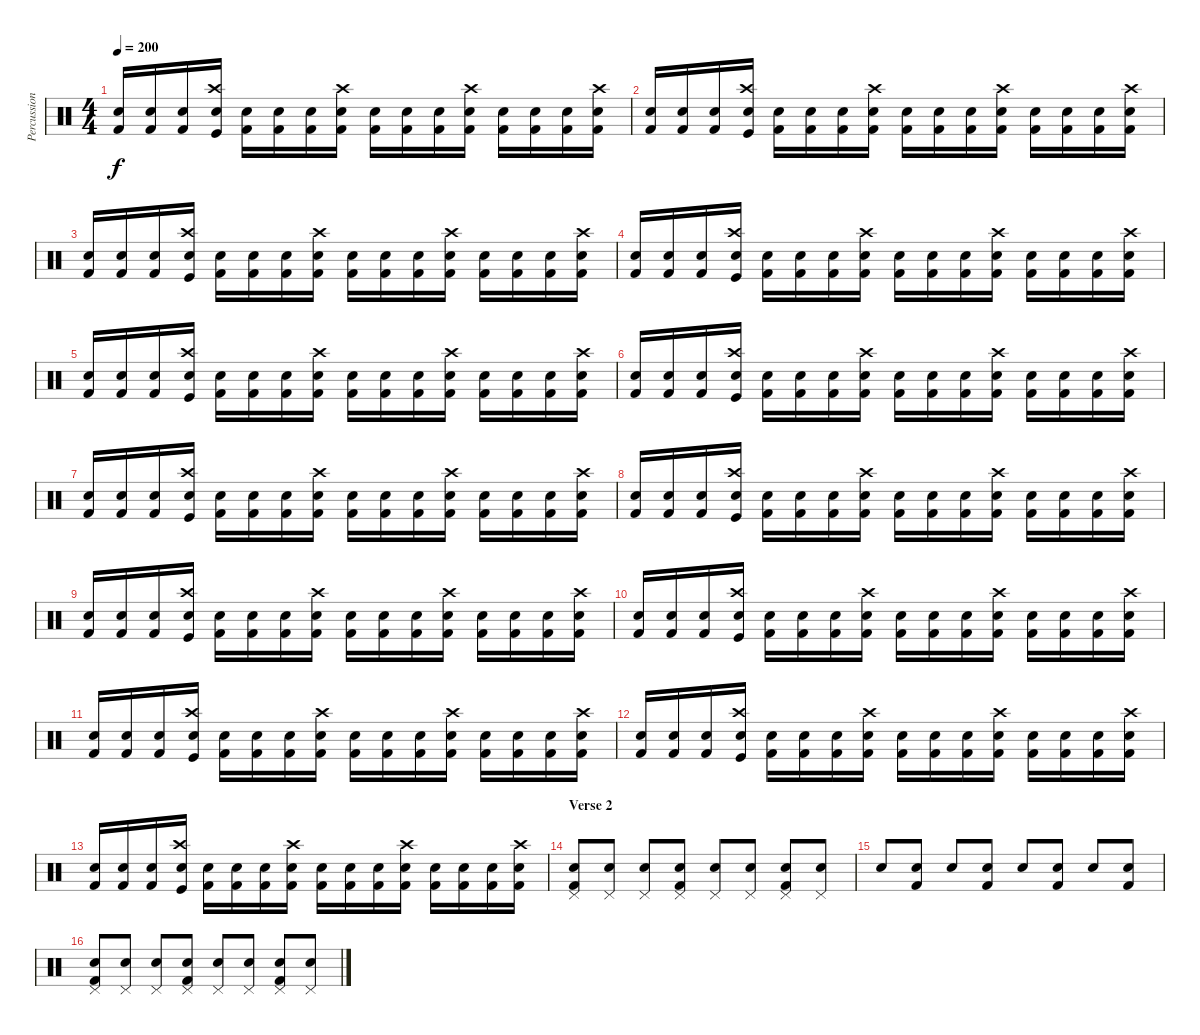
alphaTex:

\track ("Percussion" "Percussion") {instrument percussion}
\staff {score}
\articulation defaults
\ts (4 4)
\tempo 200
\clef neutral
\ks c
("Kick (hit) 2" "Snare (hit) 2").16{dy f} ("Snare (hit) 2" "Kick (hit) 2").16 ("Kick (hit) 2" "Snare (hit) 2").16 ("Crash high (hit)" "Kick (hit)" "Snare (hit) 2").16 ("Snare (hit) 2" "Kick (hit) 2").16 ("Kick (hit) 2" "Snare (hit) 2").16 ("Kick (hit) 2" "Snare (hit) 2").16 ("Kick (hit) 2" "Snare (hit) 2" "Crash high (hit)").16 ("Kick (hit) 2" "Snare (hit) 2").16 ("Snare (hit) 2" "Kick (hit) 2").16 ("Kick (hit) 2" "Snare (hit) 2").16 ("Kick (hit) 2" "Snare (hit) 2" "Crash high (hit)").16 ("Kick (hit) 2" "Snare (hit) 2").16 ("Snare (hit) 2" "Kick (hit) 2").16 ("Kick (hit) 2" "Snare (hit) 2").16 ("Kick (hit) 2" "Crash high (hit)" "Snare (hit) 2").16 |
("Kick (hit) 2" "Snare (hit) 2").16 ("Snare (hit) 2" "Kick (hit) 2").16 ("Kick (hit) 2" "Snare (hit) 2").16 ("Crash high (hit)" "Kick (hit)" "Snare (hit) 2").16 ("Snare (hit) 2" "Kick (hit) 2").16 ("Kick (hit) 2" "Snare (hit) 2").16 ("Kick (hit) 2" "Snare (hit) 2").16 ("Kick (hit) 2" "Snare (hit) 2" "Crash high (hit)").16 ("Kick (hit) 2" "Snare (hit) 2").16 ("Snare (hit) 2" "Kick (hit) 2").16 ("Kick (hit) 2" "Snare (hit) 2").16 ("Kick (hit) 2" "Snare (hit) 2" "Crash high (hit)").16 ("Kick (hit) 2" "Snare (hit) 2").16 ("Snare (hit) 2" "Kick (hit) 2").16 ("Kick (hit) 2" "Snare (hit) 2").16 ("Kick (hit) 2" "Crash high (hit)" "Snare (hit) 2").16 |
("Kick (hit) 2" "Snare (hit) 2").16 ("Snare (hit) 2" "Kick (hit) 2").16 ("Kick (hit) 2" "Snare (hit) 2").16 ("Crash high (hit)" "Kick (hit)" "Snare (hit) 2").16 ("Snare (hit) 2" "Kick (hit) 2").16 ("Kick (hit) 2" "Snare (hit) 2").16 ("Kick (hit) 2" "Snare (hit) 2").16 ("Kick (hit) 2" "Snare (hit) 2" "Crash high (hit)").16 ("Kick (hit) 2" "Snare (hit) 2").16 ("Snare (hit) 2" "Kick (hit) 2").16 ("Kick (hit) 2" "Snare (hit) 2").16 ("Kick (hit) 2" "Snare (hit) 2" "Crash high (hit)").16 ("Kick (hit) 2" "Snare (hit) 2").16 ("Snare (hit) 2" "Kick (hit) 2").16 ("Kick (hit) 2" "Snare (hit) 2").16 ("Kick (hit) 2" "Crash high (hit)" "Snare (hit) 2").16 |
("Kick (hit) 2" "Snare (hit) 2").16 ("Snare (hit) 2" "Kick (hit) 2").16 ("Kick (hit) 2" "Snare (hit) 2").16 ("Crash high (hit)" "Kick (hit)" "Snare (hit) 2").16 ("Snare (hit) 2" "Kick (hit) 2").16 ("Kick (hit) 2" "Snare (hit) 2").16 ("Kick (hit) 2" "Snare (hit) 2").16 ("Kick (hit) 2" "Snare (hit) 2" "Crash high (hit)").16 ("Kick (hit) 2" "Snare (hit) 2").16 ("Snare (hit) 2" "Kick (hit) 2").16 ("Kick (hit) 2" "Snare (hit) 2").16 ("Kick (hit) 2" "Snare (hit) 2" "Crash high (hit)").16 ("Kick (hit) 2" "Snare (hit) 2").16 ("Snare (hit) 2" "Kick (hit) 2").16 ("Kick (hit) 2" "Snare (hit) 2").16 ("Kick (hit) 2" "Crash high (hit)" "Snare (hit) 2").16 |
("Kick (hit) 2" "Snare (hit) 2").16 ("Snare (hit) 2" "Kick (hit) 2").16 ("Kick (hit) 2" "Snare (hit) 2").16 ("Crash high (hit)" "Kick (hit)" "Snare (hit) 2").16 ("Snare (hit) 2" "Kick (hit) 2").16 ("Kick (hit) 2" "Snare (hit) 2").16 ("Kick (hit) 2" "Snare (hit) 2").16 ("Kick (hit) 2" "Snare (hit) 2" "Crash high (hit)").16 ("Kick (hit) 2" "Snare (hit) 2").16 ("Snare (hit) 2" "Kick (hit) 2").16 ("Kick (hit) 2" "Snare (hit) 2").16 ("Kick (hit) 2" "Snare (hit) 2" "Crash high (hit)").16 ("Kick (hit) 2" "Snare (hit) 2").16 ("Snare (hit) 2" "Kick (hit) 2").16 ("Kick (hit) 2" "Snare (hit) 2").16 ("Kick (hit) 2" "Crash high (hit)" "Snare (hit) 2").16 |
("Kick (hit) 2" "Snare (hit) 2").16 ("Snare (hit) 2" "Kick (hit) 2").16 ("Kick (hit) 2" "Snare (hit) 2").16 ("Crash high (hit)" "Kick (hit)" "Snare (hit) 2").16 ("Snare (hit) 2" "Kick (hit) 2").16 ("Kick (hit) 2" "Snare (hit) 2").16 ("Kick (hit) 2" "Snare (hit) 2").16 ("Kick (hit) 2" "Snare (hit) 2" "Crash high (hit)").16 ("Kick (hit) 2" "Snare (hit) 2").16 ("Snare (hit) 2" "Kick (hit) 2").16 ("Kick (hit) 2" "Snare (hit) 2").16 ("Kick (hit) 2" "Snare (hit) 2" "Crash high (hit)").16 ("Kick (hit) 2" "Snare (hit) 2").16 ("Snare (hit) 2" "Kick (hit) 2").16 ("Kick (hit) 2" "Snare (hit) 2").16 ("Kick (hit) 2" "Crash high (hit)" "Snare (hit) 2").16 |
("Kick (hit) 2" "Snare (hit) 2").16 ("Snare (hit) 2" "Kick (hit) 2").16 ("Kick (hit) 2" "Snare (hit) 2").16 ("Crash high (hit)" "Kick (hit)" "Snare (hit) 2").16 ("Snare (hit) 2" "Kick (hit) 2").16 ("Kick (hit) 2" "Snare (hit) 2").16 ("Kick (hit) 2" "Snare (hit) 2").16 ("Kick (hit) 2" "Snare (hit) 2" "Crash high (hit)").16 ("Kick (hit) 2" "Snare (hit) 2").16 ("Snare (hit) 2" "Kick (hit) 2").16 ("Kick (hit) 2" "Snare (hit) 2").16 ("Kick (hit) 2" "Snare (hit) 2" "Crash high (hit)").16 ("Kick (hit) 2" "Snare (hit) 2").16 ("Snare (hit) 2" "Kick (hit) 2").16 ("Kick (hit) 2" "Snare (hit) 2").16 ("Kick (hit) 2" "Crash high (hit)" "Snare (hit) 2").16 |
("Kick (hit) 2" "Snare (hit) 2").16 ("Snare (hit) 2" "Kick (hit) 2").16 ("Kick (hit) 2" "Snare (hit) 2").16 ("Crash high (hit)" "Kick (hit)" "Snare (hit) 2").16 ("Snare (hit) 2" "Kick (hit) 2").16 ("Kick (hit) 2" "Snare (hit) 2").16 ("Kick (hit) 2" "Snare (hit) 2").16 ("Kick (hit) 2" "Snare (hit) 2" "Crash high (hit)").16 ("Kick (hit) 2" "Snare (hit) 2").16 ("Snare (hit) 2" "Kick (hit) 2").16 ("Kick (hit) 2" "Snare (hit) 2").16 ("Kick (hit) 2" "Snare (hit) 2" "Crash high (hit)").16 ("Kick (hit) 2" "Snare (hit) 2").16 ("Snare (hit) 2" "Kick (hit) 2").16 ("Kick (hit) 2" "Snare (hit) 2").16 ("Kick (hit) 2" "Crash high (hit)" "Snare (hit) 2").16 |
("Kick (hit) 2" "Snare (hit) 2").16 ("Snare (hit) 2" "Kick (hit) 2").16 ("Kick (hit) 2" "Snare (hit) 2").16 ("Crash high (hit)" "Kick (hit)" "Snare (hit) 2").16 ("Snare (hit) 2" "Kick (hit) 2").16 ("Kick (hit) 2" "Snare (hit) 2").16 ("Kick (hit) 2" "Snare (hit) 2").16 ("Kick (hit) 2" "Snare (hit) 2" "Crash high (hit)").16 ("Kick (hit) 2" "Snare (hit) 2").16 ("Snare (hit) 2" "Kick (hit) 2").16 ("Kick (hit) 2" "Snare (hit) 2").16 ("Kick (hit) 2" "Snare (hit) 2" "Crash high (hit)").16 ("Kick (hit) 2" "Snare (hit) 2").16 ("Snare (hit) 2" "Kick (hit) 2").16 ("Kick (hit) 2" "Snare (hit) 2").16 ("Kick (hit) 2" "Crash high (hit)" "Snare (hit) 2").16 |
("Kick (hit) 2" "Snare (hit) 2").16 ("Snare (hit) 2" "Kick (hit) 2").16 ("Kick (hit) 2" "Snare (hit) 2").16 ("Crash high (hit)" "Kick (hit)" "Snare (hit) 2").16 ("Snare (hit) 2" "Kick (hit) 2").16 ("Kick (hit) 2" "Snare (hit) 2").16 ("Kick (hit) 2" "Snare (hit) 2").16 ("Kick (hit) 2" "Snare (hit) 2" "Crash high (hit)").16 ("Kick (hit) 2" "Snare (hit) 2").16 ("Snare (hit) 2" "Kick (hit) 2").16 ("Kick (hit) 2" "Snare (hit) 2").16 ("Kick (hit) 2" "Snare (hit) 2" "Crash high (hit)").16 ("Kick (hit) 2" "Snare (hit) 2").16 ("Snare (hit) 2" "Kick (hit) 2").16 ("Kick (hit) 2" "Snare (hit) 2").16 ("Kick (hit) 2" "Crash high (hit)" "Snare (hit) 2").16 |
("Kick (hit) 2" "Snare (hit) 2").16 ("Snare (hit) 2" "Kick (hit) 2").16 ("Kick (hit) 2" "Snare (hit) 2").16 ("Crash high (hit)" "Kick (hit)" "Snare (hit) 2").16 ("Snare (hit) 2" "Kick (hit) 2").16 ("Kick (hit) 2" "Snare (hit) 2").16 ("Kick (hit) 2" "Snare (hit) 2").16 ("Kick (hit) 2" "Snare (hit) 2" "Crash high (hit)").16 ("Kick (hit) 2" "Snare (hit) 2").16 ("Snare (hit) 2" "Kick (hit) 2").16 ("Kick (hit) 2" "Snare (hit) 2").16 ("Kick (hit) 2" "Snare (hit) 2" "Crash high (hit)").16 ("Kick (hit) 2" "Snare (hit) 2").16 ("Snare (hit) 2" "Kick (hit) 2").16 ("Kick (hit) 2" "Snare (hit) 2").16 ("Kick (hit) 2" "Crash high (hit)" "Snare (hit) 2").16 |
("Kick (hit) 2" "Snare (hit) 2").16 ("Snare (hit) 2" "Kick (hit) 2").16 ("Kick (hit) 2" "Snare (hit) 2").16 ("Crash high (hit)" "Kick (hit)" "Snare (hit) 2").16 ("Snare (hit) 2" "Kick (hit) 2").16 ("Kick (hit) 2" "Snare (hit) 2").16 ("Kick (hit) 2" "Snare (hit) 2").16 ("Kick (hit) 2" "Snare (hit) 2" "Crash high (hit)").16 ("Kick (hit) 2" "Snare (hit) 2").16 ("Snare (hit) 2" "Kick (hit) 2").16 ("Kick (hit) 2" "Snare (hit) 2").16 ("Kick (hit) 2" "Snare (hit) 2" "Crash high (hit)").16 ("Kick (hit) 2" "Snare (hit) 2").16 ("Snare (hit) 2" "Kick (hit) 2").16 ("Kick (hit) 2" "Snare (hit) 2").16 ("Kick (hit) 2" "Crash high (hit)" "Snare (hit) 2").16 |
("Kick (hit) 2" "Snare (hit) 2").16 ("Snare (hit) 2" "Kick (hit) 2").16 ("Kick (hit) 2" "Snare (hit) 2").16 ("Crash high (hit)" "Kick (hit)" "Snare (hit) 2").16 ("Snare (hit) 2" "Kick (hit) 2").16 ("Kick (hit) 2" "Snare (hit) 2").16 ("Kick (hit) 2" "Snare (hit) 2").16 ("Kick (hit) 2" "Snare (hit) 2" "Crash high (hit)").16 ("Kick (hit) 2" "Snare (hit) 2").16 ("Snare (hit) 2" "Kick (hit) 2").16 ("Kick (hit) 2" "Snare (hit) 2").16 ("Kick (hit) 2" "Snare (hit) 2" "Crash high (hit)").16 ("Kick (hit) 2" "Snare (hit) 2").16 ("Snare (hit) 2" "Kick (hit) 2").16 ("Kick (hit) 2" "Snare (hit) 2").16 ("Kick (hit) 2" "Crash high (hit)" "Snare (hit) 2").16 |
\section ("" "Verse 2")
("Pedal Hi-Hat (hit)" "Kick (hit) 2" "Snare (hit) 2").8 ("Pedal Hi-Hat (hit)" "Electric Snare (hit)").8 ("Pedal Hi-Hat (hit)" "Electric Snare (hit)").8 ("Pedal Hi-Hat (hit)" "Snare (hit) 2" "Kick (hit) 2").8 ("Pedal Hi-Hat (hit)" "Electric Snare (hit)").8 ("Pedal Hi-Hat (hit)" "Electric Snare (hit)").8 ("Pedal Hi-Hat (hit)" "Kick (hit) 2" "Snare (hit) 2").8 ("Pedal Hi-Hat (hit)" "Electric Snare (hit)").8 |
"Electric Snare (hit)".8 ("Kick (hit) 2" "Snare (hit) 2").8 "Electric Snare (hit)".8 ("Kick (hit) 2" "Snare (hit) 2").8 "Electric Snare (hit)".8 ("Snare (hit) 2" "Kick (hit) 2").8 "Electric Snare (hit)".8 ("Snare (hit) 2" "Kick (hit) 2").8 |
("Pedal Hi-Hat (hit)" "Kick (hit) 2" "Snare (hit) 2").8 ("Pedal Hi-Hat (hit)" "Electric Snare (hit)").8 ("Pedal Hi-Hat (hit)" "Electric Snare (hit)").8 ("Pedal Hi-Hat (hit)" "Snare (hit) 2" "Kick (hit) 2").8 ("Pedal Hi-Hat (hit)" "Electric Snare (hit)").8 ("Pedal Hi-Hat (hit)" "Electric Snare (hit)").8 ("Pedal Hi-Hat (hit)" "Kick (hit) 2" "Snare (hit) 2").8 ("Pedal Hi-Hat (hit)" "Electric Snare (hit)").8
